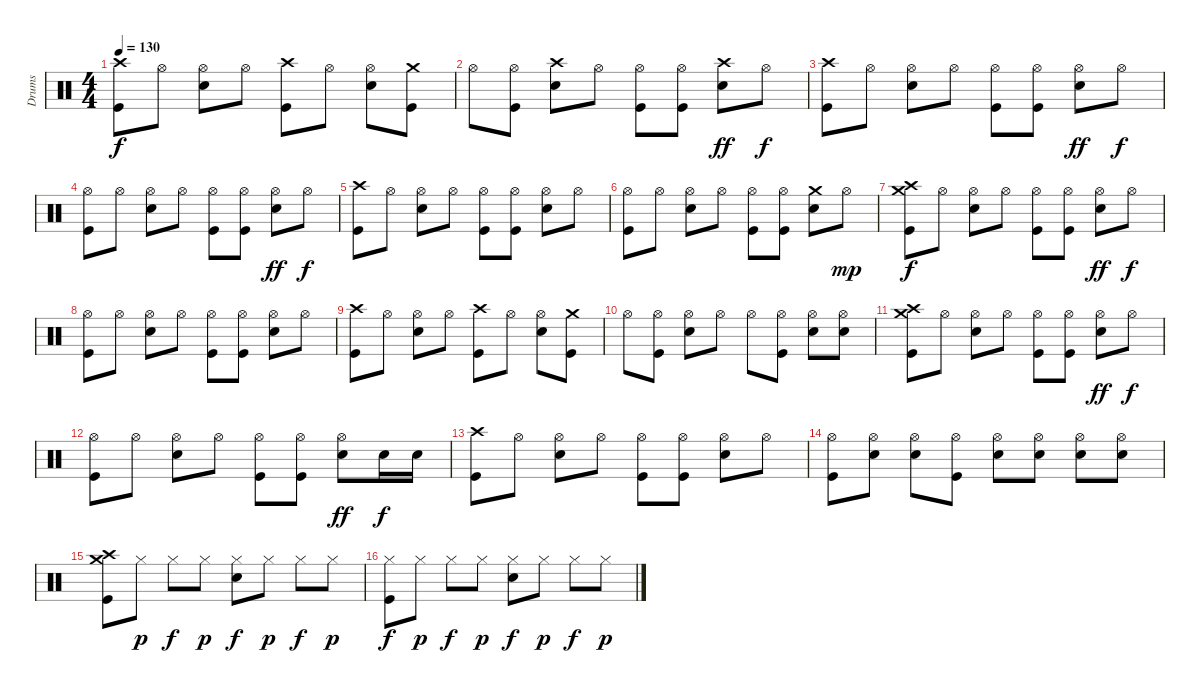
\track ("Drums" "Drums") {instrument percussion}
\staff {score}
\articulation defaults
\ts (4 4)
\tempo 130
\clef neutral
\ks c
("Crash high (hit)" "Kick (hit)").8{dy f} "Hi-Hat (open)".8 ("Hi-Hat (open)" "Snare (hit) 2").8 "Hi-Hat (open)".8 ("Crash high (hit)" "Kick (hit)").8 "Hi-Hat (open)".8 ("Hi-Hat (open)" "Snare (hit) 2").8 ("Crash medium (hit)" "Kick (hit)").8 |
"Hi-Hat (open)".8 ("Hi-Hat (open)" "Kick (hit)").8 ("Crash high (hit)" "Snare (hit) 2").8 "Hi-Hat (open)".8 ("Hi-Hat (open)" "Kick (hit)").8 ("Hi-Hat (open)" "Kick (hit)").8 ("Crash high (hit)" "Snare (hit) 2").8{dy ff} "Hi-Hat (open)".8{dy f} |
("Crash high (hit)" "Kick (hit)").8 "Hi-Hat (open)".8 ("Hi-Hat (open)" "Snare (hit) 2").8 "Hi-Hat (open)".8 ("Hi-Hat (open)" "Kick (hit)").8 ("Hi-Hat (open)" "Kick (hit)").8 ("Hi-Hat (open)" "Snare (hit) 2").8{dy ff} "Hi-Hat (open)".8{dy f} |
("Hi-Hat (open)" "Kick (hit)").8 "Hi-Hat (open)".8 ("Hi-Hat (open)" "Snare (hit) 2").8 "Hi-Hat (open)".8 ("Hi-Hat (open)" "Kick (hit)").8 ("Hi-Hat (open)" "Kick (hit)").8 ("Hi-Hat (open)" "Snare (hit) 2").8{dy ff} "Hi-Hat (open)".8{dy f} |
("Crash high (hit)" "Kick (hit)").8 "Hi-Hat (open)".8 ("Hi-Hat (open)" "Snare (hit) 2").8 "Hi-Hat (open)".8 ("Hi-Hat (open)" "Kick (hit)").8 ("Hi-Hat (open)" "Kick (hit)").8 ("Hi-Hat (open)" "Snare (hit) 2").8 "Hi-Hat (open)".8 |
("Hi-Hat (open)" "Kick (hit)").8 "Hi-Hat (open)".8 ("Hi-Hat (open)" "Snare (hit) 2").8 "Hi-Hat (open)".8 ("Hi-Hat (open)" "Kick (hit)").8 ("Hi-Hat (open)" "Kick (hit)").8 ("Crash medium (hit)" "Snare (hit) 2").8 "Hi-Hat (open)".8{dy mp} |
("Crash high (hit)" "Crash medium (hit)" "Kick (hit)").8{dy f} "Hi-Hat (open)".8 ("Hi-Hat (open)" "Snare (hit) 2").8 "Hi-Hat (open)".8 ("Hi-Hat (open)" "Kick (hit)").8 ("Hi-Hat (open)" "Kick (hit)").8 ("Hi-Hat (open)" "Snare (hit) 2").8{dy ff} "Hi-Hat (open)".8{dy f} |
("Hi-Hat (open)" "Kick (hit)").8 "Hi-Hat (open)".8 ("Hi-Hat (open)" "Snare (hit) 2").8 "Hi-Hat (open)".8 ("Hi-Hat (open)" "Kick (hit)").8 ("Hi-Hat (open)" "Kick (hit)").8 ("Hi-Hat (open)" "Snare (hit) 2").8 "Hi-Hat (open)".8 |
("Crash high (hit)" "Kick (hit)").8 "Hi-Hat (open)".8 ("Hi-Hat (open)" "Snare (hit) 2").8 "Hi-Hat (open)".8 ("Crash high (hit)" "Kick (hit)").8 "Hi-Hat (open)".8 ("Hi-Hat (open)" "Snare (hit) 2").8 ("Crash medium (hit)" "Kick (hit)").8 |
"Hi-Hat (open)".8 ("Hi-Hat (open)" "Kick (hit)").8 ("Hi-Hat (open)" "Snare (hit) 2").8 "Hi-Hat (open)".8 "Hi-Hat (open)".8 ("Hi-Hat (open)" "Kick (hit)").8 ("Hi-Hat (open)" "Snare (hit) 2").8 ("Hi-Hat (open)" "Snare (hit) 2").8 |
("Crash high (hit)" "Crash medium (hit)" "Kick (hit)").8 "Hi-Hat (open)".8 ("Hi-Hat (open)" "Snare (hit) 2").8 "Hi-Hat (open)".8 ("Hi-Hat (open)" "Kick (hit)").8 ("Hi-Hat (open)" "Kick (hit)").8 ("Hi-Hat (open)" "Snare (hit) 2").8{dy ff} "Hi-Hat (open)".8{dy f} |
("Hi-Hat (open)" "Kick (hit)").8 "Hi-Hat (open)".8 ("Hi-Hat (open)" "Snare (hit) 2").8 "Hi-Hat (open)".8 ("Hi-Hat (open)" "Kick (hit)").8 ("Hi-Hat (open)" "Kick (hit)").8 ("Hi-Hat (open)" "Snare (hit) 2").8{dy ff} "Snare (hit) 2".16{dy f} "Snare (hit) 2".16 |
("Crash high (hit)" "Kick (hit)").8 "Hi-Hat (open)".8 ("Hi-Hat (open)" "Snare (hit) 2").8 "Hi-Hat (open)".8 ("Hi-Hat (open)" "Kick (hit)").8 ("Hi-Hat (open)" "Kick (hit)").8 ("Hi-Hat (open)" "Snare (hit) 2").8 "Hi-Hat (open)".8 |
("Hi-Hat (open)" "Kick (hit)").8 ("Hi-Hat (open)" "Snare (hit) 2").8 ("Hi-Hat (open)" "Snare (hit) 2").8 ("Hi-Hat (open)" "Kick (hit)").8 ("Hi-Hat (open)" "Snare (hit) 2").8 ("Hi-Hat (open)" "Snare (hit) 2").8 ("Hi-Hat (open)" "Snare (hit) 2").8 ("Hi-Hat (open)" "Snare (hit) 2").8 |
("Crash high (hit)" "Crash medium (hit)" "Kick (hit)").8 "Hi-Hat (closed)".8{dy p} "Hi-Hat (closed)".8{dy f} "Hi-Hat (closed)".8{dy p} ("Hi-Hat (closed)" "Snare (hit) 2").8{dy f} "Hi-Hat (closed)".8{dy p} "Hi-Hat (closed)".8{dy f} "Hi-Hat (closed)".8{dy p} |
("Hi-Hat (closed)" "Kick (hit)").8{dy f} "Hi-Hat (closed)".8{dy p} "Hi-Hat (closed)".8{dy f} "Hi-Hat (closed)".8{dy p} ("Hi-Hat (closed)" "Snare (hit) 2").8{dy f} "Hi-Hat (closed)".8{dy p} "Hi-Hat (closed)".8{dy f} "Hi-Hat (closed)".8{dy p}
